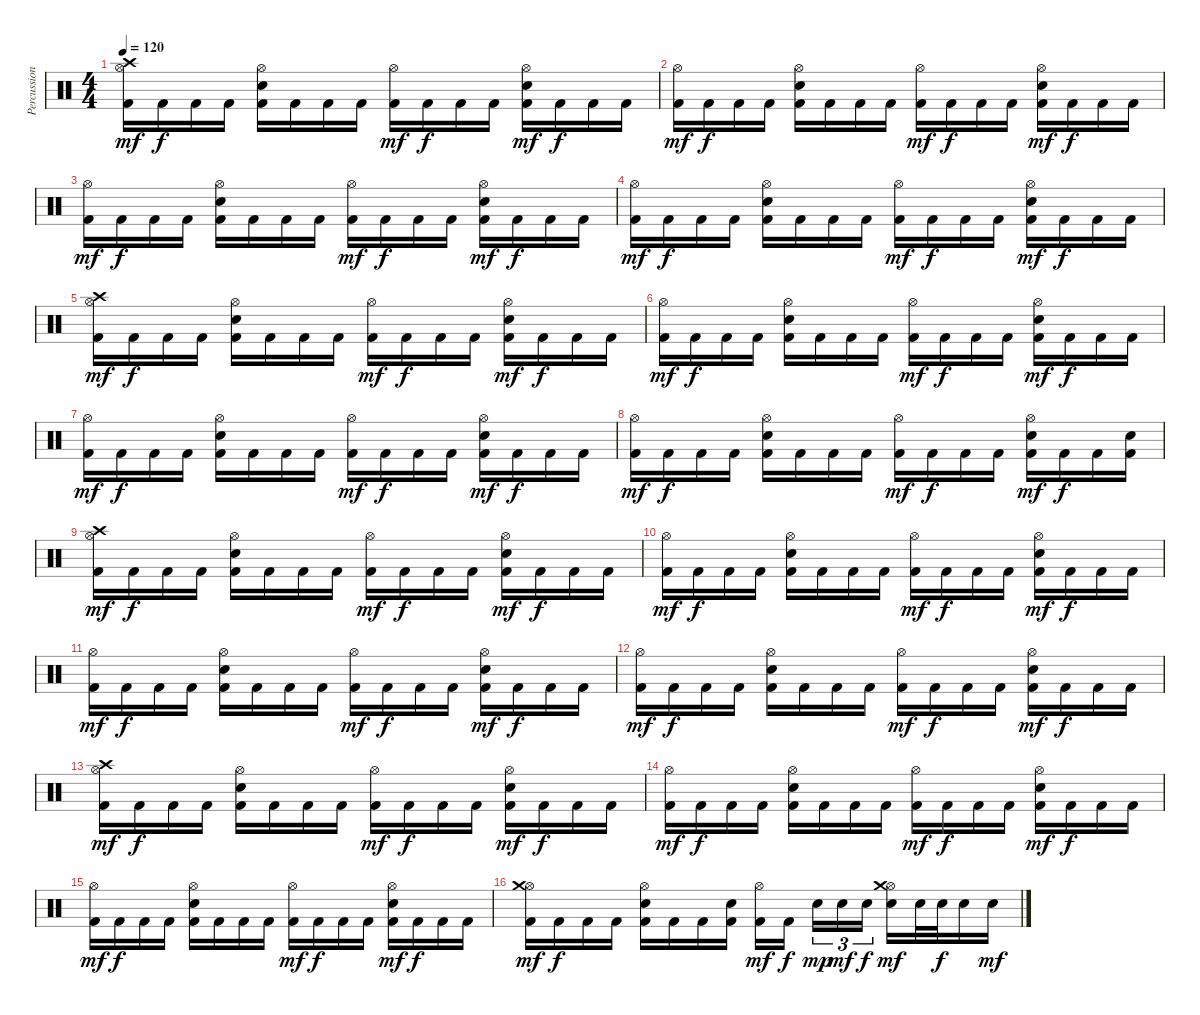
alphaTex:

\track ("Percussion" "Percussion") {instrument percussion}
\staff {score}
\articulation defaults
\ts (4 4)
\tempo 120
\clef neutral
\ks c
("Hi-Hat (open)" "Crash high (hit)" "Kick (hit) 2").16{dy mf} "Kick (hit) 2".16{dy f} "Kick (hit) 2".16 "Kick (hit) 2".16 ("Hi-Hat (open)" "Electric Snare (hit)" "Kick (hit) 2").16 "Kick (hit) 2".16 "Kick (hit) 2".16 "Kick (hit) 2".16 ("Hi-Hat (open)" "Kick (hit) 2").16{dy mf} "Kick (hit) 2".16{dy f} "Kick (hit) 2".16 "Kick (hit) 2".16 ("Hi-Hat (open)" "Electric Snare (hit)" "Kick (hit) 2").16{dy mf} "Kick (hit) 2".16{dy f} "Kick (hit) 2".16 "Kick (hit) 2".16 |
("Hi-Hat (open)" "Kick (hit) 2").16{dy mf} "Kick (hit) 2".16{dy f} "Kick (hit) 2".16 "Kick (hit) 2".16 ("Hi-Hat (open)" "Electric Snare (hit)" "Kick (hit) 2").16 "Kick (hit) 2".16 "Kick (hit) 2".16 "Kick (hit) 2".16 ("Hi-Hat (open)" "Kick (hit) 2").16{dy mf} "Kick (hit) 2".16{dy f} "Kick (hit) 2".16 "Kick (hit) 2".16 ("Hi-Hat (open)" "Electric Snare (hit)" "Kick (hit) 2").16{dy mf} "Kick (hit) 2".16{dy f} "Kick (hit) 2".16 "Kick (hit) 2".16 |
("Hi-Hat (open)" "Kick (hit) 2").16{dy mf} "Kick (hit) 2".16{dy f} "Kick (hit) 2".16 "Kick (hit) 2".16 ("Hi-Hat (open)" "Electric Snare (hit)" "Kick (hit) 2").16 "Kick (hit) 2".16 "Kick (hit) 2".16 "Kick (hit) 2".16 ("Hi-Hat (open)" "Kick (hit) 2").16{dy mf} "Kick (hit) 2".16{dy f} "Kick (hit) 2".16 "Kick (hit) 2".16 ("Hi-Hat (open)" "Electric Snare (hit)" "Kick (hit) 2").16{dy mf} "Kick (hit) 2".16{dy f} "Kick (hit) 2".16 "Kick (hit) 2".16 |
("Hi-Hat (open)" "Kick (hit) 2").16{dy mf} "Kick (hit) 2".16{dy f} "Kick (hit) 2".16 "Kick (hit) 2".16 ("Hi-Hat (open)" "Electric Snare (hit)" "Kick (hit) 2").16 "Kick (hit) 2".16 "Kick (hit) 2".16 "Kick (hit) 2".16 ("Hi-Hat (open)" "Kick (hit) 2").16{dy mf} "Kick (hit) 2".16{dy f} "Kick (hit) 2".16 "Kick (hit) 2".16 ("Hi-Hat (open)" "Electric Snare (hit)" "Kick (hit) 2").16{dy mf} "Kick (hit) 2".16{dy f} "Kick (hit) 2".16 "Kick (hit) 2".16 |
("Hi-Hat (open)" "Crash high (hit)" "Kick (hit) 2").16{dy mf} "Kick (hit) 2".16{dy f} "Kick (hit) 2".16 "Kick (hit) 2".16 ("Hi-Hat (open)" "Electric Snare (hit)" "Kick (hit) 2").16 "Kick (hit) 2".16 "Kick (hit) 2".16 "Kick (hit) 2".16 ("Hi-Hat (open)" "Kick (hit) 2").16{dy mf} "Kick (hit) 2".16{dy f} "Kick (hit) 2".16 "Kick (hit) 2".16 ("Hi-Hat (open)" "Electric Snare (hit)" "Kick (hit) 2").16{dy mf} "Kick (hit) 2".16{dy f} "Kick (hit) 2".16 "Kick (hit) 2".16 |
("Hi-Hat (open)" "Kick (hit) 2").16{dy mf} "Kick (hit) 2".16{dy f} "Kick (hit) 2".16 "Kick (hit) 2".16 ("Hi-Hat (open)" "Electric Snare (hit)" "Kick (hit) 2").16 "Kick (hit) 2".16 "Kick (hit) 2".16 "Kick (hit) 2".16 ("Hi-Hat (open)" "Kick (hit) 2").16{dy mf} "Kick (hit) 2".16{dy f} "Kick (hit) 2".16 "Kick (hit) 2".16 ("Hi-Hat (open)" "Electric Snare (hit)" "Kick (hit) 2").16{dy mf} "Kick (hit) 2".16{dy f} "Kick (hit) 2".16 "Kick (hit) 2".16 |
("Hi-Hat (open)" "Kick (hit) 2").16{dy mf} "Kick (hit) 2".16{dy f} "Kick (hit) 2".16 "Kick (hit) 2".16 ("Hi-Hat (open)" "Electric Snare (hit)" "Kick (hit) 2").16 "Kick (hit) 2".16 "Kick (hit) 2".16 "Kick (hit) 2".16 ("Hi-Hat (open)" "Kick (hit) 2").16{dy mf} "Kick (hit) 2".16{dy f} "Kick (hit) 2".16 "Kick (hit) 2".16 ("Hi-Hat (open)" "Electric Snare (hit)" "Kick (hit) 2").16{dy mf} "Kick (hit) 2".16{dy f} "Kick (hit) 2".16 "Kick (hit) 2".16 |
("Hi-Hat (open)" "Kick (hit) 2").16{dy mf} "Kick (hit) 2".16{dy f} "Kick (hit) 2".16 "Kick (hit) 2".16 ("Hi-Hat (open)" "Electric Snare (hit)" "Kick (hit) 2").16 "Kick (hit) 2".16 "Kick (hit) 2".16 "Kick (hit) 2".16 ("Hi-Hat (open)" "Kick (hit) 2").16{dy mf} "Kick (hit) 2".16{dy f} "Kick (hit) 2".16 "Kick (hit) 2".16 ("Hi-Hat (open)" "Electric Snare (hit)" "Kick (hit) 2").16{dy mf} "Kick (hit) 2".16{dy f} "Kick (hit) 2".16 ("Electric Snare (hit)" "Kick (hit) 2").16 |
("Hi-Hat (open)" "Crash high (hit)" "Kick (hit) 2").16{dy mf} "Kick (hit) 2".16{dy f} "Kick (hit) 2".16 "Kick (hit) 2".16 ("Hi-Hat (open)" "Electric Snare (hit)" "Kick (hit) 2").16 "Kick (hit) 2".16 "Kick (hit) 2".16 "Kick (hit) 2".16 ("Hi-Hat (open)" "Kick (hit) 2").16{dy mf} "Kick (hit) 2".16{dy f} "Kick (hit) 2".16 "Kick (hit) 2".16 ("Hi-Hat (open)" "Electric Snare (hit)" "Kick (hit) 2").16{dy mf} "Kick (hit) 2".16{dy f} "Kick (hit) 2".16 "Kick (hit) 2".16 |
("Hi-Hat (open)" "Kick (hit) 2").16{dy mf} "Kick (hit) 2".16{dy f} "Kick (hit) 2".16 "Kick (hit) 2".16 ("Hi-Hat (open)" "Electric Snare (hit)" "Kick (hit) 2").16 "Kick (hit) 2".16 "Kick (hit) 2".16 "Kick (hit) 2".16 ("Hi-Hat (open)" "Kick (hit) 2").16{dy mf} "Kick (hit) 2".16{dy f} "Kick (hit) 2".16 "Kick (hit) 2".16 ("Hi-Hat (open)" "Electric Snare (hit)" "Kick (hit) 2").16{dy mf} "Kick (hit) 2".16{dy f} "Kick (hit) 2".16 "Kick (hit) 2".16 |
("Hi-Hat (open)" "Kick (hit) 2").16{dy mf} "Kick (hit) 2".16{dy f} "Kick (hit) 2".16 "Kick (hit) 2".16 ("Hi-Hat (open)" "Electric Snare (hit)" "Kick (hit) 2").16 "Kick (hit) 2".16 "Kick (hit) 2".16 "Kick (hit) 2".16 ("Hi-Hat (open)" "Kick (hit) 2").16{dy mf} "Kick (hit) 2".16{dy f} "Kick (hit) 2".16 "Kick (hit) 2".16 ("Hi-Hat (open)" "Electric Snare (hit)" "Kick (hit) 2").16{dy mf} "Kick (hit) 2".16{dy f} "Kick (hit) 2".16 "Kick (hit) 2".16 |
("Hi-Hat (open)" "Kick (hit) 2").16{dy mf} "Kick (hit) 2".16{dy f} "Kick (hit) 2".16 "Kick (hit) 2".16 ("Hi-Hat (open)" "Electric Snare (hit)" "Kick (hit) 2").16 "Kick (hit) 2".16 "Kick (hit) 2".16 "Kick (hit) 2".16 ("Hi-Hat (open)" "Kick (hit) 2").16{dy mf} "Kick (hit) 2".16{dy f} "Kick (hit) 2".16 "Kick (hit) 2".16 ("Hi-Hat (open)" "Electric Snare (hit)" "Kick (hit) 2").16{dy mf} "Kick (hit) 2".16{dy f} "Kick (hit) 2".16 "Kick (hit) 2".16 |
("Hi-Hat (open)" "Crash high (hit)" "Kick (hit) 2").16{dy mf} "Kick (hit) 2".16{dy f} "Kick (hit) 2".16 "Kick (hit) 2".16 ("Hi-Hat (open)" "Electric Snare (hit)" "Kick (hit) 2").16 "Kick (hit) 2".16 "Kick (hit) 2".16 "Kick (hit) 2".16 ("Hi-Hat (open)" "Kick (hit) 2").16{dy mf} "Kick (hit) 2".16{dy f} "Kick (hit) 2".16 "Kick (hit) 2".16 ("Hi-Hat (open)" "Electric Snare (hit)" "Kick (hit) 2").16{dy mf} "Kick (hit) 2".16{dy f} "Kick (hit) 2".16 "Kick (hit) 2".16 |
("Hi-Hat (open)" "Kick (hit) 2").16{dy mf} "Kick (hit) 2".16{dy f} "Kick (hit) 2".16 "Kick (hit) 2".16 ("Hi-Hat (open)" "Electric Snare (hit)" "Kick (hit) 2").16 "Kick (hit) 2".16 "Kick (hit) 2".16 "Kick (hit) 2".16 ("Hi-Hat (open)" "Kick (hit) 2").16{dy mf} "Kick (hit) 2".16{dy f} "Kick (hit) 2".16 "Kick (hit) 2".16 ("Hi-Hat (open)" "Electric Snare (hit)" "Kick (hit) 2").16{dy mf} "Kick (hit) 2".16{dy f} "Kick (hit) 2".16 "Kick (hit) 2".16 |
("Hi-Hat (open)" "Kick (hit) 2").16{dy mf} "Kick (hit) 2".16{dy f} "Kick (hit) 2".16 "Kick (hit) 2".16 ("Hi-Hat (open)" "Electric Snare (hit)" "Kick (hit) 2").16 "Kick (hit) 2".16 "Kick (hit) 2".16 "Kick (hit) 2".16 ("Hi-Hat (open)" "Kick (hit) 2").16{dy mf} "Kick (hit) 2".16{dy f} "Kick (hit) 2".16 "Kick (hit) 2".16 ("Hi-Hat (open)" "Electric Snare (hit)" "Kick (hit) 2").16{dy mf} "Kick (hit) 2".16{dy f} "Kick (hit) 2".16 "Kick (hit) 2".16 |
("Hi-Hat (open)" "Crash medium (hit)" "Kick (hit) 2").16{dy mf} "Kick (hit) 2".16{dy f} "Kick (hit) 2".16 "Kick (hit) 2".16 ("Hi-Hat (open)" "Electric Snare (hit)" "Kick (hit) 2").16 "Kick (hit) 2".16 "Kick (hit) 2".16 ("Electric Snare (hit)" "Kick (hit) 2").16 ("Hi-Hat (open)" "Kick (hit) 2").16{dy mf} "Kick (hit) 2".16{dy f} "Electric Snare (hit)".16{tu (3 2) dy mp} "Electric Snare (hit)".16{tu (3 2) dy mf} "Electric Snare (hit)".16{tu (3 2) dy f} ("Hi-Hat (open)" "Crash medium (hit)" "Electric Snare (hit)").16{dy mf} "Electric Snare (hit)".32 "Electric Snare (hit)".32{dy f} "Electric Snare (hit)".16 "Electric Snare (hit)".16{dy mf}
